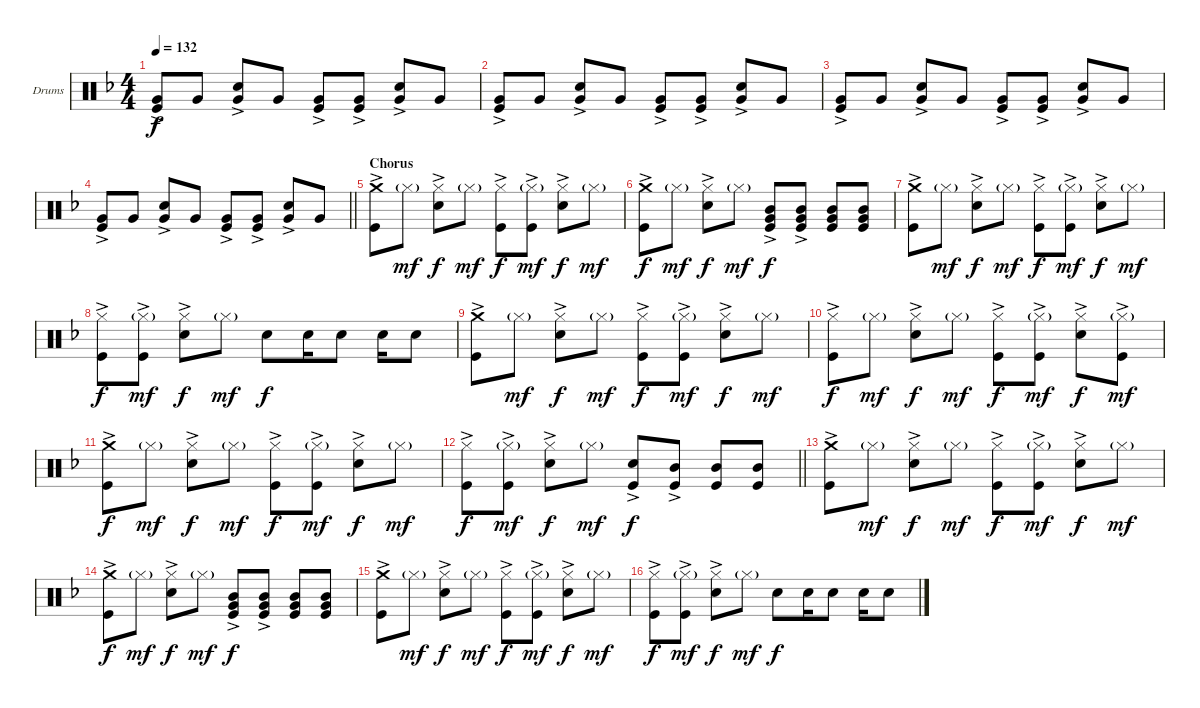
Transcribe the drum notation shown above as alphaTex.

\bracketExtendMode groupsimilarinstruments
\firstSystemTrackNameOrientation horizontal
\otherSystemsTrackNameOrientation horizontal
\track ("Drumkit" "Drums") {instrument percussion}
\staff {score}
\articulation defaults
\ts (4 4)
\tempo 132
\clef neutral
\ks f
("Very Low Tom (hit)"{ac} "Kick (hit)"{ac}).8{dy f} "Very Low Tom (hit)".8 ("Snare (hit) 2"{ac} "Very Low Tom (hit)"{ac}).8 "Very Low Tom (hit)".8 ("Very Low Tom (hit)"{ac} "Kick (hit)"{ac}).8 ("Very Low Tom (hit)" "Kick (hit)"{ac}).8 ("Snare (hit) 2"{ac} "Very Low Tom (hit)"{ac}).8 "Very Low Tom (hit)".8 |
("Very Low Tom (hit)"{ac} "Kick (hit)"{ac}).8 "Very Low Tom (hit)".8 ("Snare (hit) 2"{ac} "Very Low Tom (hit)"{ac}).8 "Very Low Tom (hit)".8 ("Very Low Tom (hit)"{ac} "Kick (hit)"{ac}).8 ("Very Low Tom (hit)" "Kick (hit)"{ac}).8 ("Snare (hit) 2"{ac} "Very Low Tom (hit)"{ac}).8 "Very Low Tom (hit)".8 |
("Very Low Tom (hit)"{ac} "Kick (hit)"{ac}).8 "Very Low Tom (hit)".8 ("Snare (hit) 2"{ac} "Very Low Tom (hit)"{ac}).8 "Very Low Tom (hit)".8 ("Very Low Tom (hit)"{ac} "Kick (hit)"{ac}).8 ("Very Low Tom (hit)" "Kick (hit)"{ac}).8 ("Snare (hit) 2"{ac} "Very Low Tom (hit)"{ac}).8 "Very Low Tom (hit)".8 |
\barLineRight lightlight
("Very Low Tom (hit)"{ac} "Kick (hit)"{ac}).8 "Very Low Tom (hit)".8 ("Snare (hit) 2"{ac} "Very Low Tom (hit)"{ac}).8 "Very Low Tom (hit)".8 ("Very Low Tom (hit)"{ac} "Kick (hit)"{ac}).8 ("Very Low Tom (hit)" "Kick (hit)"{ac}).8 ("Snare (hit) 2"{ac} "Very Low Tom (hit)"{ac}).8 "Very Low Tom (hit)".8 |
\section ("" "Chorus")
("Crash medium (hit)" "Kick (hit)"{ac}).8 "Hi-Hat (closed)"{g}.8{dy mf} ("Hi-Hat (closed)" "Snare (hit) 2"{ac}).8{dy f} "Hi-Hat (closed)"{g}.8{dy mf} ("Hi-Hat (closed)" "Kick (hit)"{ac}).8{dy f} ("Hi-Hat (closed)"{g} "Kick (hit)"{ac}).8{dy mf} ("Hi-Hat (closed)" "Snare (hit) 2"{ac}).8{dy f} "Hi-Hat (closed)"{g}.8{dy mf} |
("Crash medium (hit)" "Kick (hit)"{ac}).8{dy f} "Hi-Hat (closed)"{g}.8{dy mf} ("Hi-Hat (closed)" "Snare (hit) 2"{ac}).8{dy f} "Hi-Hat (closed)"{g}.8{dy mf} ("Mid Tom (hit)" "Very Low Tom (hit)" "Kick (hit)"{ac}).8{dy f} ("Mid Tom (hit)" "Very Low Tom (hit)" "Kick (hit)"{ac}).8 ("Mid Tom (hit)" "Very Low Tom (hit)" "Kick (hit)").8 ("Mid Tom (hit)" "Very Low Tom (hit)" "Kick (hit)").8 |
("Crash medium (hit)" "Kick (hit)"{ac}).8 "Hi-Hat (closed)"{g}.8{dy mf} ("Hi-Hat (closed)" "Snare (hit) 2"{ac}).8{dy f} "Hi-Hat (closed)"{g}.8{dy mf} ("Hi-Hat (closed)" "Kick (hit)"{ac}).8{dy f} ("Hi-Hat (closed)"{g} "Kick (hit)"{ac}).8{dy mf} ("Hi-Hat (closed)" "Snare (hit) 2"{ac}).8{dy f} "Hi-Hat (closed)"{g}.8{dy mf} |
("Hi-Hat (closed)" "Kick (hit)"{ac}).8{dy f} ("Hi-Hat (closed)"{g} "Kick (hit)"{ac}).8{dy mf} ("Hi-Hat (closed)" "Snare (hit) 2"{ac}).8{dy f} "Hi-Hat (closed)"{g}.8{dy mf} "Snare (hit) 2".8{dy f} "Snare (hit) 2".16 "Snare (hit) 2".8 "Snare (hit) 2".16 "Snare (hit) 2".8 |
("Crash medium (hit)" "Kick (hit)"{ac}).8 "Hi-Hat (closed)"{g}.8{dy mf} ("Hi-Hat (closed)" "Snare (hit) 2"{ac}).8{dy f} "Hi-Hat (closed)"{g}.8{dy mf} ("Hi-Hat (closed)" "Kick (hit)"{ac}).8{dy f} ("Hi-Hat (closed)"{g} "Kick (hit)"{ac}).8{dy mf} ("Hi-Hat (closed)" "Snare (hit) 2"{ac}).8{dy f} "Hi-Hat (closed)"{g}.8{dy mf} |
("Hi-Hat (closed)" "Kick (hit)"{ac}).8{dy f} "Hi-Hat (closed)"{g}.8{dy mf} ("Hi-Hat (closed)" "Snare (hit) 2"{ac}).8{dy f} "Hi-Hat (closed)"{g}.8{dy mf} ("Hi-Hat (closed)" "Kick (hit)"{ac}).8{dy f} ("Hi-Hat (closed)"{g} "Kick (hit)"{ac}).8{dy mf} ("Hi-Hat (closed)" "Snare (hit) 2"{ac}).8{dy f} ("Hi-Hat (closed)"{g} "Kick (hit)"{ac}).8{dy mf} |
("Crash medium (hit)" "Kick (hit)"{ac}).8{dy f} "Hi-Hat (closed)"{g}.8{dy mf} ("Hi-Hat (closed)" "Snare (hit) 2"{ac}).8{dy f} "Hi-Hat (closed)"{g}.8{dy mf} ("Hi-Hat (closed)" "Kick (hit)"{ac}).8{dy f} ("Hi-Hat (closed)"{g} "Kick (hit)"{ac}).8{dy mf} ("Hi-Hat (closed)" "Snare (hit) 2"{ac}).8{dy f} "Hi-Hat (closed)"{g}.8{dy mf} |
\barLineRight lightlight
("Hi-Hat (closed)" "Kick (hit)"{ac}).8{dy f} ("Hi-Hat (closed)"{g} "Kick (hit)"{ac}).8{dy mf} ("Hi-Hat (closed)" "Snare (hit) 2"{ac}).8{dy f} "Hi-Hat (closed)"{g}.8{dy mf} ("Snare (hit) 2"{ac} "Kick (hit)"{ac}).8{dy f} ("Mid Tom (hit)" "Kick (hit)"{ac}).8 ("Mid Tom (hit)" "Kick (hit)").8 ("Mid Tom (hit)" "Kick (hit)").8 |
("Crash medium (hit)" "Kick (hit)"{ac}).8 "Hi-Hat (closed)"{g}.8{dy mf} ("Hi-Hat (closed)" "Snare (hit) 2"{ac}).8{dy f} "Hi-Hat (closed)"{g}.8{dy mf} ("Hi-Hat (closed)" "Kick (hit)"{ac}).8{dy f} ("Hi-Hat (closed)"{g} "Kick (hit)"{ac}).8{dy mf} ("Hi-Hat (closed)" "Snare (hit) 2"{ac}).8{dy f} "Hi-Hat (closed)"{g}.8{dy mf} |
("Crash medium (hit)" "Kick (hit)"{ac}).8{dy f} "Hi-Hat (closed)"{g}.8{dy mf} ("Hi-Hat (closed)" "Snare (hit) 2"{ac}).8{dy f} "Hi-Hat (closed)"{g}.8{dy mf} ("Mid Tom (hit)" "Very Low Tom (hit)" "Kick (hit)"{ac}).8{dy f} ("Mid Tom (hit)" "Very Low Tom (hit)" "Kick (hit)"{ac}).8 ("Mid Tom (hit)" "Very Low Tom (hit)" "Kick (hit)").8 ("Mid Tom (hit)" "Very Low Tom (hit)" "Kick (hit)").8 |
("Crash medium (hit)" "Kick (hit)"{ac}).8 "Hi-Hat (closed)"{g}.8{dy mf} ("Hi-Hat (closed)" "Snare (hit) 2"{ac}).8{dy f} "Hi-Hat (closed)"{g}.8{dy mf} ("Hi-Hat (closed)" "Kick (hit)"{ac}).8{dy f} ("Hi-Hat (closed)"{g} "Kick (hit)"{ac}).8{dy mf} ("Hi-Hat (closed)" "Snare (hit) 2"{ac}).8{dy f} "Hi-Hat (closed)"{g}.8{dy mf} |
("Hi-Hat (closed)" "Kick (hit)"{ac}).8{dy f} ("Hi-Hat (closed)"{g} "Kick (hit)"{ac}).8{dy mf} ("Hi-Hat (closed)" "Snare (hit) 2"{ac}).8{dy f} "Hi-Hat (closed)"{g}.8{dy mf} "Snare (hit) 2".8{dy f} "Snare (hit) 2".16 "Snare (hit) 2".8 "Snare (hit) 2".16 "Snare (hit) 2".8
